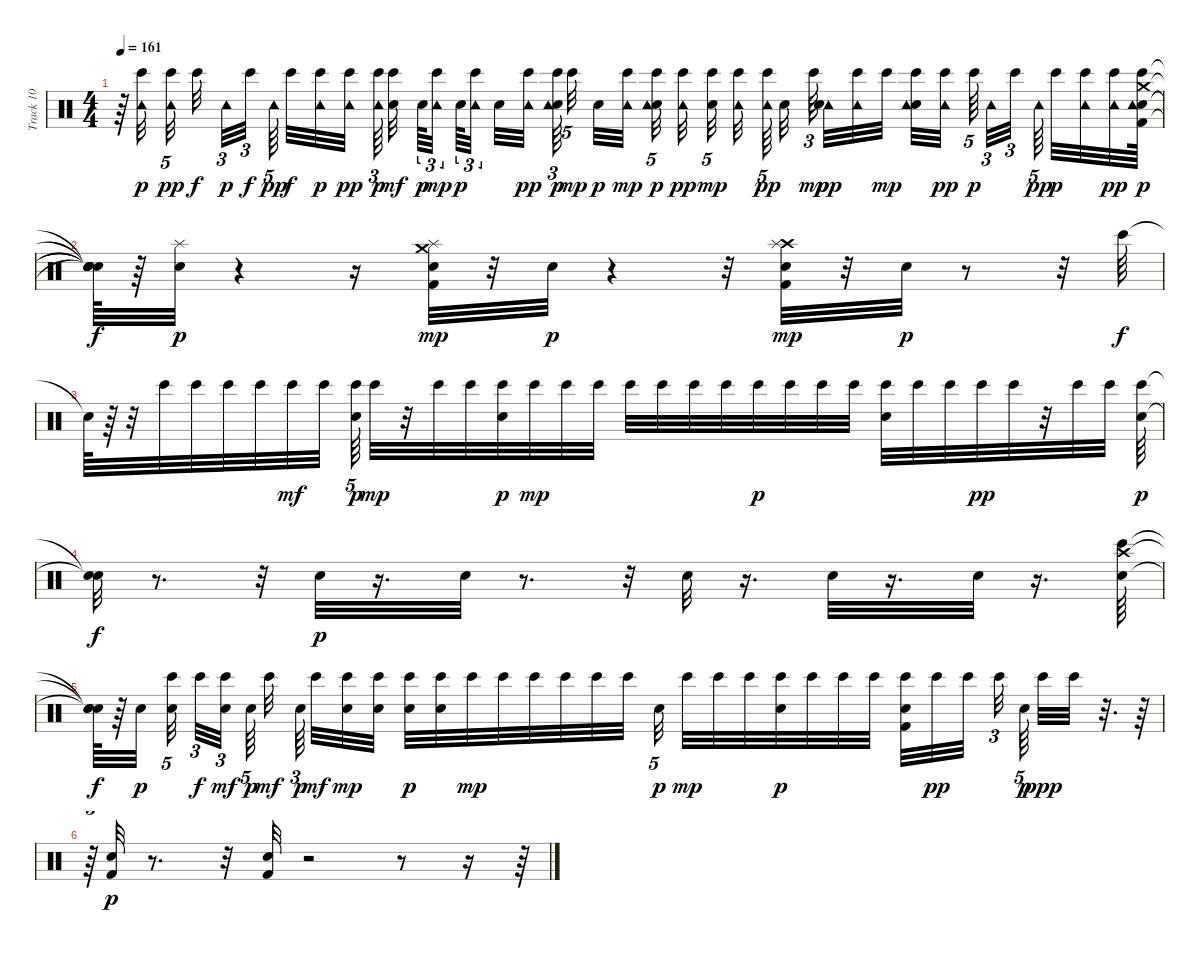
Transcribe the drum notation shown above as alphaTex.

\track ("Track 10" "Track 10") {instrument percussion}
\staff {score}
\articulation defaults
\ts (4 4)
\tempo 161
\clef neutral
\ks c
r.64{dy pp} ("Bongo High (hit)" "Tambourine (hit)").32{dy p beam splitsecondary} ("Bongo High (hit)" "Tambourine (hit)").32{tu (5 4) dy pp beam splitsecondary} "Bongo High (hit)".32{dy f beam splitsecondary} "Tambourine (hit)".32{tu (3 2) dy p} "Bongo High (hit)".32{tu (3 2) dy f} "Tambourine (hit)".64{tu (5 4) dy pp beam splitsecondary} "Bongo High (hit)".32{dy f} ("Tambourine (hit)" "Bongo High (hit)").32{dy p} ("Bongo High (hit)" "Tambourine (hit)").32{dy pp} ("Bongo High (hit)" "Tambourine (hit)").64{tu (3 2) dy p beam splitsecondary} ("Electric Snare (hit)" "Bongo High (hit)").32{dy mf beam splitsecondary} "Electric Snare (hit)".64{tu (3 2) dy p} ("Tambourine (hit)" "Bongo High (hit)").32{tu (3 2) dy mp beam splitsecondary} "Electric Snare (hit)".64{tu (3 2) dy p} ("Bongo High (hit)" "Tambourine (hit)").32{tu (3 2) beam splitsecondary} "Electric Snare (hit)".32 ("Bongo High (hit)" "Tambourine (hit)").32{dy pp beam splitsecondary} ("Bongo High (hit)" "Electric Snare (hit)" "Tambourine (hit)").64{tu (3 2) dy p} "Bongo High (hit)".32{tu (5 4) dy mp beam splitsecondary} "Electric Snare (hit)".32{dy p} ("Tambourine (hit)" "Bongo High (hit)").32{dy mp} ("Electric Snare (hit)" "Bongo High (hit)" "Tambourine (hit)").32{tu (5 4) dy p beam splitsecondary} ("Bongo High (hit)" "Tambourine (hit)").32{dy pp beam splitsecondary} ("Electric Snare (hit)" "Bongo High (hit)").32{tu (5 4) dy mp beam splitsecondary} ("Tambourine (hit)" "Bongo High (hit)").32{beam splitsecondary} ("Bongo High (hit)" "Tambourine (hit)").64{tu (5 4) dy pp beam splitsecondary} "Electric Snare (hit)".32{beam splitsecondary} "Bongo High (hit)".64{tu (3 2) dy mp beam splitsecondary} ("Tambourine (hit)" "Electric Snare (hit)").32{dy pp} ("Bongo High (hit)" "Tambourine (hit)").32 "Bongo High (hit)".32{dy mp} ("Electric Snare (hit)" "Tambourine (hit)" "Bongo High (hit)").32 ("Bongo High (hit)" "Tambourine (hit)").32{dy pp beam splitsecondary} "Bongo High (hit)".64{tu (5 4) dy p} "Tambourine (hit)".32{tu (3 2)} "Bongo High (hit)".32{tu (3 2)} "Tambourine (hit)".64{tu (5 4) dy pp beam splitsecondary} "Bongo High (hit)".32{dy p} ("Tambourine (hit)" "Bongo High (hit)").32 ("Bongo High (hit)" "Tambourine (hit)").32{dy pp} ("Bongo High (hit)" "Crash medium (hit)" "Electric Snare (hit)" "Kick (hit) 2" "Tambourine (hit)").64{dy p} |
("Snare (hit)"{t} "Snare (hit)"{t} "Snare (hit)"{t} "Snare (hit)"{t} "Snare (hit)"{t}).64{dy f} r.64 ("Splash (hit)" "Electric Snare (hit)").32{dy p} r.4 r.16 ("Crash medium (hit)" "Splash (hit)" "Kick (hit) 2" "Electric Snare (hit)").32{dy mp} r.32 "Electric Snare (hit)".32{dy p} r.4 r.32 ("Crash high (hit)" "Splash (hit)" "Electric Snare (hit)" "Kick (hit) 2").32{dy mp} r.32 "Electric Snare (hit)".32{dy p} r.8 r.32 "Bongo High (hit)".64{dy f} |
"Snare (hit)"{t}.64 r.64 r.32 "Bongo High (hit)".32 "Bongo High (hit)".32 "Bongo High (hit)".32 "Bongo High (hit)".32 "Bongo High (hit)".32{dy mf} "Bongo High (hit)".32 ("Bongo High (hit)" "Electric Snare (hit)").64{tu (5 4) dy p} "Bongo High (hit)".32{dy mp} r.32 "Bongo High (hit)".32 "Bongo High (hit)".32 ("Bongo High (hit)" "Electric Snare (hit)").32{dy p} "Bongo High (hit)".32{dy mp} "Bongo High (hit)".32 "Bongo High (hit)".32 "Bongo High (hit)".32 "Bongo High (hit)".32 "Bongo High (hit)".32 "Bongo High (hit)".32 "Bongo High (hit)".32{dy p} "Bongo High (hit)".32 "Bongo High (hit)".32 "Bongo High (hit)".32 ("Electric Snare (hit)" "Bongo High (hit)").32 "Bongo High (hit)".32 "Bongo High (hit)".32 "Bongo High (hit)".32{dy pp} "Bongo High (hit)".32 r.32 "Bongo High (hit)".32 "Bongo High (hit)".32 ("Bongo High (hit)" "Electric Snare (hit)").64{dy p} |
("Snare (hit)"{t} "Snare (hit)"{t}).32{dy f} r.8{d} r.32 "Electric Snare (hit)".32{dy p} r.16{d} "Electric Snare (hit)".32 r.8{d} r.32 "Electric Snare (hit)".32 r.16{d} "Electric Snare (hit)".32 r.16{d} "Electric Snare (hit)".32 r.16{d} ("Crash high (hit)" "Electric Snare (hit)" "Bongo High (hit)").64 |
("Snare (hit)"{t} "Snare (hit)"{t} "Snare (hit)"{t}).64{dy f} r.64 "Electric Snare (hit)".32{dy p beam splitsecondary} ("Bongo High (hit)" "Electric Snare (hit)").32{tu (5 4)} "Bongo High (hit)".32{tu (3 2) dy f} ("Electric Snare (hit)" "Bongo High (hit)").32{tu (3 2) dy mf} "Electric Snare (hit)".64{tu (5 4) dy p beam splitsecondary} "Bongo High (hit)".32{dy mf beam splitsecondary} "Electric Snare (hit)".64{tu (3 2) dy p beam splitsecondary} "Bongo High (hit)".32{dy mf} ("Electric Snare (hit)" "Bongo High (hit)").32{dy mp} ("Electric Snare (hit)" "Bongo High (hit)").32 ("Bongo High (hit)" "Electric Snare (hit)").32{dy p} ("Bongo High (hit)" "Electric Snare (hit)").32 "Bongo High (hit)".32{dy mp} "Bongo High (hit)".32 "Bongo High (hit)".32 "Bongo High (hit)".32 "Bongo High (hit)".32 "Bongo High (hit)".32 "Electric Snare (hit)".32{tu (5 4) dy p beam splitsecondary} "Bongo High (hit)".32{dy mp} "Bongo High (hit)".32 "Bongo High (hit)".32 ("Bongo High (hit)" "Electric Snare (hit)").32{dy p} "Bongo High (hit)".32 "Bongo High (hit)".32 "Bongo High (hit)".32 ("Kick (hit) 2" "Electric Snare (hit)" "Bongo High (hit)").32 "Bongo High (hit)".32{dy pp} "Bongo High (hit)".32{beam splitsecondary} "Bongo High (hit)".32{tu (3 2)} "Electric Snare (hit)".64{tu (5 4) dy p beam splitsecondary} "Bongo High (hit)".32{dy ppp} "Bongo High (hit)".32 r.32{d} r.64 |
r.64{tu (3 2)} ("Kick (hit) 2" "Electric Snare (hit)").32{dy p} r.8{d} r.32 ("Kick (hit) 2" "Electric Snare (hit)").32 r.2 r.8 r.16 r.64
